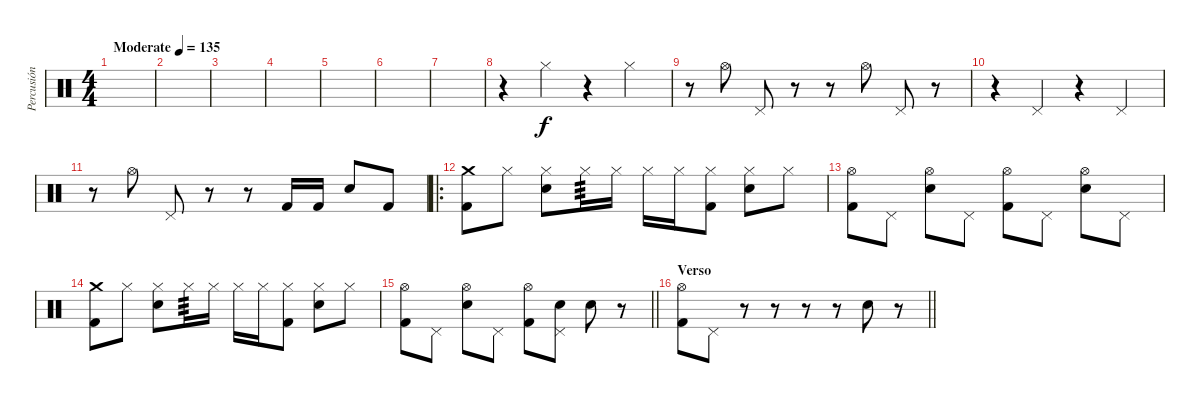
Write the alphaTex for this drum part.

\track ("Percusión" "Percusión") {instrument percussion}
\staff {score}
\articulation defaults
\ts (4 4)
\tempo (135 "Moderate")
\clef neutral
\ks c
|
|
|
|
|
|
|
r.4 "Hi-Hat (closed)".4 r.4 "Hi-Hat (closed)".4 |
r.8 "Hi-Hat (open)".8 "Pedal Hi-Hat (hit)".8 r.8 r.8 "Hi-Hat (open)".8 "Pedal Hi-Hat (hit)".8 r.8 |
r.4 "Pedal Hi-Hat (hit)".4 r.4 "Pedal Hi-Hat (hit)".4 |
r.8 "Hi-Hat (open)".8 "Pedal Hi-Hat (hit)".8 r.8 r.8 "Kick (hit) 2".16 "Kick (hit) 2".16{dy f} "Electric Snare (hit)".8 "Kick (hit) 2".8 |
\ro
("Crash medium (hit)" "Kick (hit) 2").8 "Hi-Hat (closed)".8 ("Hi-Hat (closed)" "Electric Snare (hit)").8 "Hi-Hat (closed)".16{tp 3} "Hi-Hat (closed)".16 "Hi-Hat (closed)".16 "Hi-Hat (closed)".16 ("Hi-Hat (closed)" "Kick (hit) 2").8 ("Hi-Hat (closed)" "Electric Snare (hit)").8 "Hi-Hat (closed)".8 |
("Hi-Hat (open)" "Kick (hit) 2").8 "Pedal Hi-Hat (hit)".8 ("Hi-Hat (open)" "Electric Snare (hit)").8 "Pedal Hi-Hat (hit)".8 ("Hi-Hat (open)" "Kick (hit) 2").8 "Pedal Hi-Hat (hit)".8 ("Hi-Hat (open)" "Electric Snare (hit)").8 "Pedal Hi-Hat (hit)".8 |
("Crash medium (hit)" "Kick (hit) 2").8 "Hi-Hat (closed)".8 ("Hi-Hat (closed)" "Electric Snare (hit)").8 "Hi-Hat (closed)".16{tp 3} "Hi-Hat (closed)".16 "Hi-Hat (closed)".16 "Hi-Hat (closed)".16 ("Hi-Hat (closed)" "Kick (hit) 2").8 ("Hi-Hat (closed)" "Electric Snare (hit)").8 "Hi-Hat (closed)".8 |
\barLineRight lightlight
("Hi-Hat (open)" "Kick (hit) 2").8 "Pedal Hi-Hat (hit)".8 ("Hi-Hat (open)" "Electric Snare (hit)").8 "Pedal Hi-Hat (hit)".8 ("Hi-Hat (open)" "Kick (hit) 2").8 ("Pedal Hi-Hat (hit)" "Electric Snare (hit)").8 "Electric Snare (hit)".8 r.8 |
\section ("" "Verso")
\barLineRight lightlight
("Hi-Hat (open)" "Kick (hit) 2").8 "Pedal Hi-Hat (hit)".8 r.8 r.8 r.8 r.8 "Electric Snare (hit)".8 r.8
